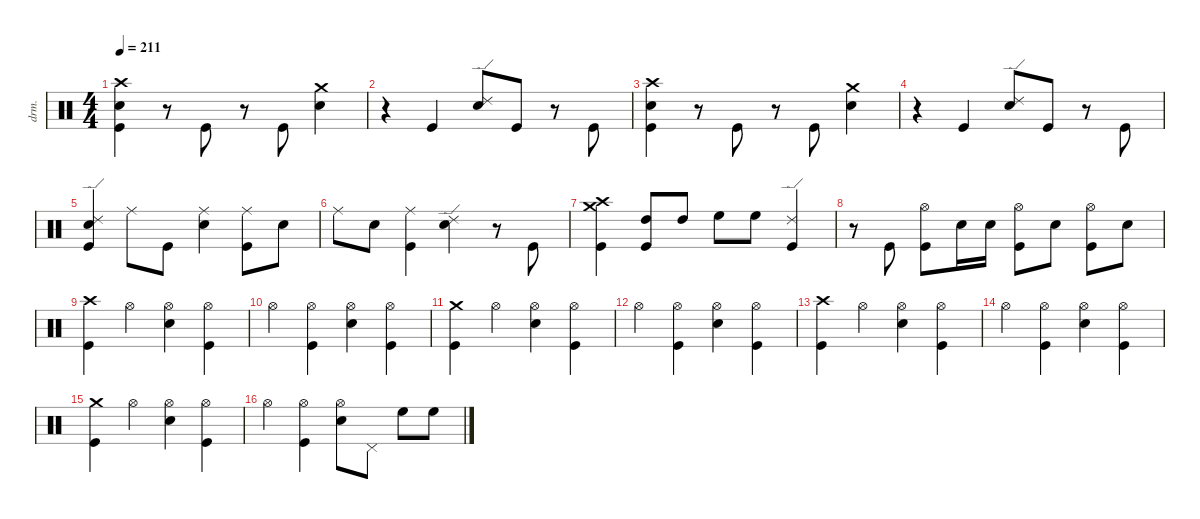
\defaultSystemsLayout 4
\hideDynamics
\bracketExtendMode nobrackets
\track ("Drums" "drm.") {instrument percussion}
\staff {score}
\articulation defaults
\ts (4 4)
\tempo 211
\clef neutral
\ks c
("Kick (hit)" "Snare (hit) 2" "Crash high (hit)"{acc #}).4{dy ff beam Down} r.8{beam Down} "Kick (hit)".8{beam Up} r.8{beam Down} "Kick (hit)".8{beam Up} ("Snare (hit) 2" "Crash medium (hit)").4{beam Down} |
r.4{beam Down} "Kick (hit)".4{beam Up} ("Snare (hit) 2" "Ride (edge) 2").8{beam Up} "Kick (hit)".8{beam Up} r.8{beam Down} "Kick (hit)".8{beam Up} |
("Kick (hit)" "Snare (hit) 2" "Crash high (hit)"{acc #}).4{beam Down} r.8{beam Down} "Kick (hit)".8{beam Up} r.8{beam Down} "Kick (hit)".8{beam Up} ("Snare (hit) 2" "Crash medium (hit)").4{beam Down} |
r.4{beam Down} "Kick (hit)".4{beam Up} ("Snare (hit) 2" "Ride (edge) 2").8{beam Up} "Kick (hit)".8{beam Up} r.8{beam Down} "Kick (hit)".8{beam Up} |
("Kick (hit)" "Snare (hit) 2" "Ride (edge) 2").4{beam Up} "Ride (middle)"{acc #}.8{beam Down} "Kick (hit)".8{beam Down} ("Snare (hit) 2" "Ride (middle)"{acc #}).4{beam Down} ("Kick (hit)" "Ride (middle)"{acc #}).8{beam Down} "Snare (hit) 2".8{dy f beam Down} |
"Ride (middle)"{acc #}.8{dy fff beam Down} "Snare (hit) 2".8{dy mf beam Down} ("Kick (hit)" "Ride (middle)"{acc #}).4{dy ff beam Down} ("Snare (hit) 2" "Ride (edge) 2").4{beam Down} r.8{beam Down} "Kick (hit)".8{dy mf beam Up} |
("Kick (hit)" "Crash high (hit)"{acc #} "Crash medium (hit)").4{dy ff beam Down} ("Kick (hit)" "High Tom (hit)").8{beam Up} "High Tom (hit)".8{dy f beam Up} "High Floor Tom (hit)".8{dy ff beam Down} "High Floor Tom (hit)".8{dy f beam Down} ("Kick (hit)" "Ride (edge) 2").4{dy ff beam Up} |
r.8{beam Down} "Kick (hit)".8{dy mf beam Up} ("Kick (hit)" "Hi-Hat (open)"{acc #}).8{dy fff beam Down} "Snare (hit) 2".16{dy mp beam Down} "Snare (hit) 2".16{dy p beam Down} ("Kick (hit)" "Hi-Hat (open)"{acc #}).8{dy ff beam Down} "Snare (hit) 2".8{dy f beam Down} ("Kick (hit)" "Hi-Hat (open)"{acc #}).8{dy ff beam Down} "Snare (hit) 2".8{dy f beam Down} |
("Kick (hit)" "Crash high (hit)"{acc #}).4{dy ff beam Down} "Hi-Hat (open)"{acc #}.4{dy f beam Down} ("Snare (hit) 2" "Hi-Hat (open)"{acc #}).4{dy ff beam Down} ("Kick (hit)" "Hi-Hat (open)"{acc #}).4{beam Down} |
"Hi-Hat (open)"{acc #}.4{dy fff beam Down} ("Kick (hit)" "Hi-Hat (open)"{acc #}).4{dy ff beam Down} ("Snare (hit) 2" "Hi-Hat (open)"{acc #}).4{beam Down} ("Kick (hit)" "Hi-Hat (open)"{acc #}).4{beam Down} |
("Kick (hit)" "Crash medium (hit)").4{beam Down} "Hi-Hat (open)"{acc #}.4{dy f beam Down} ("Snare (hit) 2" "Hi-Hat (open)"{acc #}).4{dy ff beam Down} ("Kick (hit)" "Hi-Hat (open)"{acc #}).4{beam Down} |
"Hi-Hat (open)"{acc #}.4{dy fff beam Down} ("Kick (hit)" "Hi-Hat (open)"{acc #}).4{dy ff beam Down} ("Snare (hit) 2" "Hi-Hat (open)"{acc #}).4{beam Down} ("Kick (hit)" "Hi-Hat (open)"{acc #}).4{beam Down} |
("Kick (hit)" "Crash high (hit)"{acc #}).4{beam Down} "Hi-Hat (open)"{acc #}.4{dy f beam Down} ("Snare (hit) 2" "Hi-Hat (open)"{acc #}).4{dy ff beam Down} ("Kick (hit)" "Hi-Hat (open)"{acc #}).4{beam Down} |
"Hi-Hat (open)"{acc #}.4{dy fff beam Down} ("Kick (hit)" "Hi-Hat (open)"{acc #}).4{dy ff beam Down} ("Snare (hit) 2" "Hi-Hat (open)"{acc #}).4{beam Down} ("Kick (hit)" "Hi-Hat (open)"{acc #}).4{beam Down} |
("Kick (hit)" "Crash medium (hit)").4{beam Down} "Hi-Hat (open)"{acc #}.4{dy f beam Down} ("Snare (hit) 2" "Hi-Hat (open)"{acc #}).4{dy ff beam Down} ("Kick (hit)" "Hi-Hat (open)"{acc #}).4{beam Down} |
"Hi-Hat (open)"{acc #}.4{dy fff beam Down} ("Kick (hit)" "Hi-Hat (open)"{acc #}).4{dy ff beam Down} ("Snare (hit) 2" "Hi-Hat (open)"{acc #}).8{beam Down} "Pedal Hi-Hat (hit)"{acc #}.8{beam Down} "High Floor Tom (hit)".8{beam Down} "High Floor Tom (hit)".8{beam Down}
